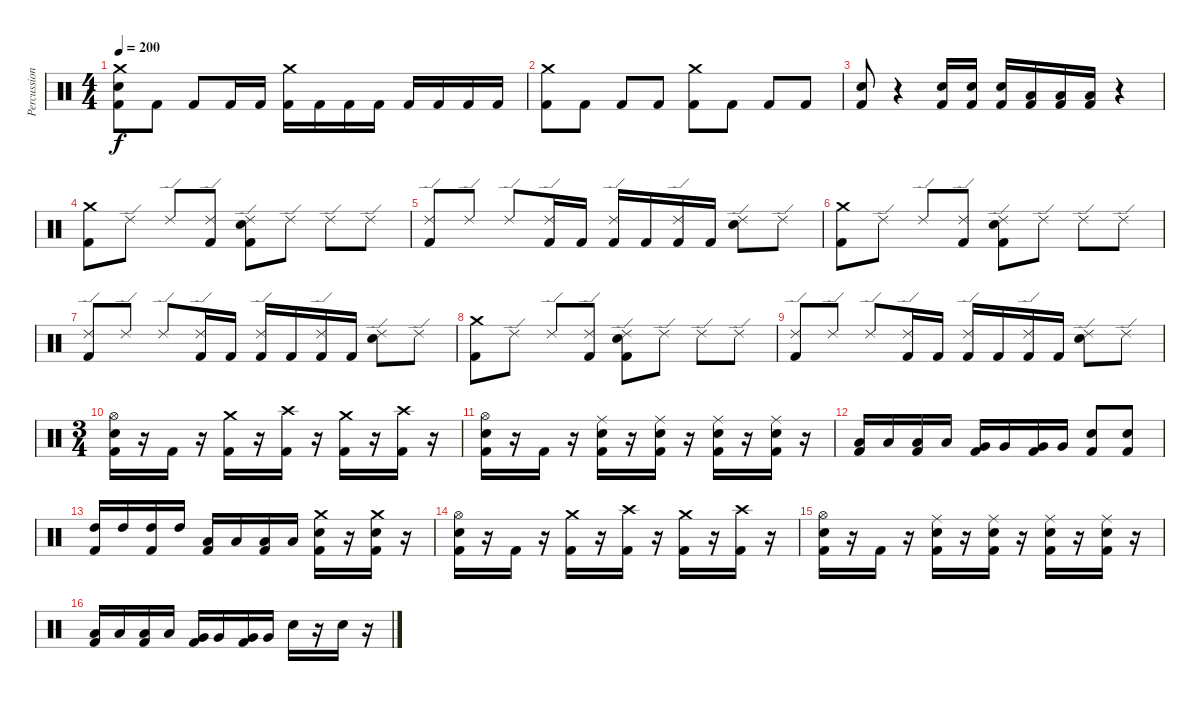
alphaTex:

\track ("Percussion" "Percussion") {instrument percussion}
\staff
\articulation defaults
\ts (4 4)
\tempo 200
\clef neutral
\ks c
("Crash medium (hit)" "Electric Snare (hit)" "Kick (hit) 2").8{dy f} "Kick (hit) 2".8 "Kick (hit) 2".8 "Kick (hit) 2".16 "Kick (hit) 2".16 ("Crash medium (hit)" "Kick (hit) 2").16 "Kick (hit) 2".16 "Kick (hit) 2".16 "Kick (hit) 2".16 "Kick (hit) 2".16 "Kick (hit) 2".16 "Kick (hit) 2".16 "Kick (hit) 2".16 |
("Crash medium (hit)" "Kick (hit) 2").8 "Kick (hit) 2".8 "Kick (hit) 2".8 "Kick (hit) 2".8 ("Crash medium (hit)" "Kick (hit) 2").8 "Kick (hit) 2".8 "Kick (hit) 2".8 "Kick (hit) 2".8 |
("Electric Snare (hit)" "Kick (hit) 2").8 r.4 ("Electric Snare (hit)" "Kick (hit) 2").16 ("Electric Snare (hit)" "Kick (hit) 2").16 ("Electric Snare (hit)" "Kick (hit) 2").16 ("Low Tom (hit)" "Kick (hit) 2").16 ("Low Tom (hit)" "Kick (hit) 2").16 ("Low Tom (hit)" "Kick (hit) 2").16 r.4 |
("Crash medium (hit)" "Kick (hit) 2").8 "Ride (edge) 2".8 "Ride (edge) 2".8 ("Ride (edge) 2" "Kick (hit) 2").8 ("Ride (edge) 2" "Electric Snare (hit)" "Kick (hit) 2").8 "Ride (edge) 2".8 "Ride (edge) 2".8 "Ride (edge) 2".8 |
("Ride (edge) 2" "Kick (hit) 2").8 "Ride (edge) 2".8 "Ride (edge) 2".8 ("Ride (edge) 2" "Kick (hit) 2").16 "Kick (hit) 2".16 ("Ride (edge) 2" "Kick (hit) 2").16 "Kick (hit) 2".16 ("Ride (edge) 2" "Kick (hit) 2").16 "Kick (hit) 2".16 ("Ride (edge) 2" "Electric Snare (hit)").8 "Ride (edge) 2".8 |
("Crash medium (hit)" "Kick (hit) 2").8 "Ride (edge) 2".8 "Ride (edge) 2".8 ("Ride (edge) 2" "Kick (hit) 2").8 ("Ride (edge) 2" "Electric Snare (hit)" "Kick (hit) 2").8 "Ride (edge) 2".8 "Ride (edge) 2".8 "Ride (edge) 2".8 |
("Ride (edge) 2" "Kick (hit) 2").8 "Ride (edge) 2".8 "Ride (edge) 2".8 ("Ride (edge) 2" "Kick (hit) 2").16 "Kick (hit) 2".16 ("Ride (edge) 2" "Kick (hit) 2").16 "Kick (hit) 2".16 ("Ride (edge) 2" "Kick (hit) 2").16 "Kick (hit) 2".16 ("Ride (edge) 2" "Electric Snare (hit)").8 "Ride (edge) 2".8 |
("Crash medium (hit)" "Kick (hit) 2").8 "Ride (edge) 2".8 "Ride (edge) 2".8 ("Ride (edge) 2" "Kick (hit) 2").8 ("Ride (edge) 2" "Electric Snare (hit)" "Kick (hit) 2").8 "Ride (edge) 2".8 "Ride (edge) 2".8 "Ride (edge) 2".8 |
("Ride (edge) 2" "Kick (hit) 2").8 "Ride (edge) 2".8 "Ride (edge) 2".8 ("Ride (edge) 2" "Kick (hit) 2").16 "Kick (hit) 2".16 ("Ride (edge) 2" "Kick (hit) 2").16 "Kick (hit) 2".16 ("Ride (edge) 2" "Kick (hit) 2").16 "Kick (hit) 2".16 ("Ride (edge) 2" "Electric Snare (hit)").8 "Ride (edge) 2".8 |
\ts (3 4)
("Hi-Hat (open)" "Electric Snare (hit)" "Kick (hit) 2").16 r.16 "Kick (hit) 2".16 r.16 ("Crash medium (hit)" "Kick (hit) 2").16 r.16 ("Crash high (hit)" "Kick (hit) 2").16 r.16 ("Crash medium (hit)" "Kick (hit) 2").16 r.16 ("Crash high (hit)" "Kick (hit) 2").16 r.16 |
("Hi-Hat (open)" "Electric Snare (hit)" "Kick (hit) 2").16 r.16 "Kick (hit) 2".16 r.16 ("Ride (middle)" "Electric Snare (hit)" "Kick (hit) 2").16 r.16 ("Ride (middle)" "Electric Snare (hit)" "Kick (hit) 2").16 r.16 ("Ride (middle)" "Electric Snare (hit)" "Kick (hit) 2").16 r.16 ("Ride (middle)" "Electric Snare (hit)" "Kick (hit) 2").16 r.16 |
("Low Tom (hit)" "Kick (hit) 2").16 "Low Tom (hit)".16 ("Low Tom (hit)" "Kick (hit) 2").16 "Low Tom (hit)".16 ("Very Low Tom (hit)" "Kick (hit) 2").16 "Very Low Tom (hit)".16 ("Very Low Tom (hit)" "Kick (hit) 2").16 "Very Low Tom (hit)".16 ("Electric Snare (hit)" "Kick (hit) 2").8 ("Electric Snare (hit)" "Kick (hit) 2").8 |
("High Tom (hit)" "Kick (hit) 2").16 "High Tom (hit)".16 ("High Tom (hit)" "Kick (hit) 2").16 "High Tom (hit)".16 ("Low Tom (hit)" "Kick (hit) 2").16 "Low Tom (hit)".16 ("Low Tom (hit)" "Kick (hit) 2").16 "Low Tom (hit)".16 ("Crash medium (hit)" "Electric Snare (hit)" "Kick (hit) 2").16 r.16 ("Crash medium (hit)" "Electric Snare (hit)" "Kick (hit) 2").16 r.16 |
("Hi-Hat (open)" "Electric Snare (hit)" "Kick (hit) 2").16 r.16 "Kick (hit) 2".16 r.16 ("Crash medium (hit)" "Kick (hit) 2").16 r.16 ("Crash high (hit)" "Kick (hit) 2").16 r.16 ("Crash medium (hit)" "Kick (hit) 2").16 r.16 ("Crash high (hit)" "Kick (hit) 2").16 r.16 |
("Hi-Hat (open)" "Electric Snare (hit)" "Kick (hit) 2").16 r.16 "Kick (hit) 2".16 r.16 ("Ride (middle)" "Electric Snare (hit)" "Kick (hit) 2").16 r.16 ("Ride (middle)" "Electric Snare (hit)" "Kick (hit) 2").16 r.16 ("Ride (middle)" "Electric Snare (hit)" "Kick (hit) 2").16 r.16 ("Ride (middle)" "Electric Snare (hit)" "Kick (hit) 2").16 r.16 |
("Low Tom (hit)" "Kick (hit) 2").16 "Low Tom (hit)".16 ("Low Tom (hit)" "Kick (hit) 2").16 "Low Tom (hit)".16 ("Very Low Tom (hit)" "Kick (hit) 2").16 "Very Low Tom (hit)".16 ("Very Low Tom (hit)" "Kick (hit) 2").16 "Very Low Tom (hit)".16 "Electric Snare (hit)".16 r.16 "Electric Snare (hit)".16 r.16
